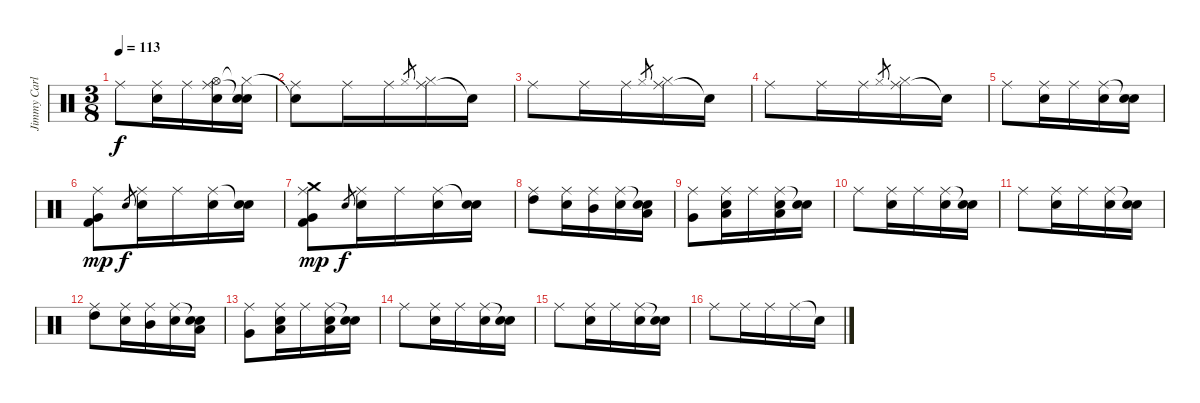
\track ("Jimmy Carl Black" "Jimmy Carl") {instrument percussion}
\staff {score}
\articulation defaults
\ts (3 8)
\tempo 113
\clef neutral
\ks c "Ride (middle)".8{dy f}
("Ride (middle)" "Snare (hit) 2").16 "Ride (middle)".16 ("Ride (middle)" "Hi-Hat (open)" "Snare (hit) 2").16 ("Snare (hit)"{t} "Hi-Hat (closed)"{t} "Snare (hit) 2").16 |
("Ride (middle)" "Snare (hit)"{t}).8 "Ride (middle)".16 "Ride (middle)".16 "Hi-Hat (closed)".8{gr} ("Ride (middle)" "Hi-Hat (closed)").16 "Snare (hit)"{t}.16 |
"Ride (middle)".8 "Ride (middle)".16 "Ride (middle)".16 "Hi-Hat (closed)".8{gr} ("Ride (middle)" "Hi-Hat (closed)").16 "Snare (hit)"{t}.16 |
"Ride (middle)".8 "Ride (middle)".16 "Ride (middle)".16 "Hi-Hat (closed)".8{gr} ("Ride (middle)" "Hi-Hat (closed)").16 "Snare (hit)"{t}.16 |
"Ride (middle)".8 ("Ride (middle)" "Snare (hit) 2").16 "Ride (middle)".16 ("Ride (middle)" "Snare (hit) 2").16 ("Snare (hit)"{t} "Snare (hit) 2").16 |
("Ride (middle)" "Very Low Tom (hit)" "Kick (hit) 2").8{dy mp} "Snare (hit) 2".8{gr dy f} ("Ride (middle)" "Snare (hit) 2").16 "Ride (middle)".16 ("Ride (middle)" "Snare (hit) 2").16 ("Snare (hit)"{t} "Snare (hit) 2").16 |
("Ride (middle)" "Crash medium (hit)" "Very Low Tom (hit)" "Kick (hit) 2").8{dy mp} "Snare (hit) 2".8{gr dy f} ("Ride (middle)" "Snare (hit) 2").16 "Ride (middle)".16 ("Ride (middle)" "Snare (hit) 2").16 ("Snare (hit)"{t} "Snare (hit) 2").16 |
("Ride (middle)" "High Tom (hit)").8 ("Ride (middle)" "Snare (hit) 2").16 ("Ride (middle)" "Mid Tom (hit)").16 ("Ride (middle)" "Snare (hit) 2").16 ("Snare (hit)"{t} "Low Tom (hit)" "Snare (hit) 2").16 |
("Ride (middle)" "Very Low Tom (hit)").8 ("Ride (middle)" "Low Floor Tom (hit)" "Snare (hit) 2").16 "Ride (middle)".16 ("Ride (middle)" "Low Floor Tom (hit)" "Snare (hit) 2").16 ("Snare (hit)"{t} "Snare (hit) 2").16 |
"Ride (middle)".8 ("Ride (middle)" "Snare (hit) 2").16 "Ride (middle)".16 ("Ride (middle)" "Snare (hit) 2").16 ("Snare (hit)"{t} "Snare (hit) 2").16 |
"Ride (middle)".8 ("Ride (middle)" "Snare (hit) 2").16 "Ride (middle)".16 ("Ride (middle)" "Snare (hit) 2").16 ("Snare (hit)"{t} "Snare (hit) 2").16 |
("Ride (middle)" "High Tom (hit)").8 ("Ride (middle)" "Snare (hit) 2").16 ("Ride (middle)" "Mid Tom (hit)").16 ("Ride (middle)" "Snare (hit) 2").16 ("Snare (hit)"{t} "Low Tom (hit)" "Snare (hit) 2").16 |
("Ride (middle)" "Very Low Tom (hit)").8 ("Ride (middle)" "Low Floor Tom (hit)" "Snare (hit) 2").16 "Ride (middle)".16 ("Ride (middle)" "Low Floor Tom (hit)" "Snare (hit) 2").16 ("Snare (hit)"{t} "Snare (hit) 2").16 |
"Ride (middle)".8 ("Ride (middle)" "Snare (hit) 2").16 "Ride (middle)".16 ("Ride (middle)" "Snare (hit) 2").16 ("Snare (hit)"{t} "Snare (hit) 2").16 |
"Ride (middle)".8 ("Ride (middle)" "Snare (hit) 2").16 "Ride (middle)".16 ("Ride (middle)" "Snare (hit) 2").16 ("Snare (hit)"{t} "Snare (hit) 2").16 |
"Ride (middle)".8 "Ride (middle)".16 "Ride (middle)".16 "Ride (middle)".16 "Snare (hit)"{t}.16
